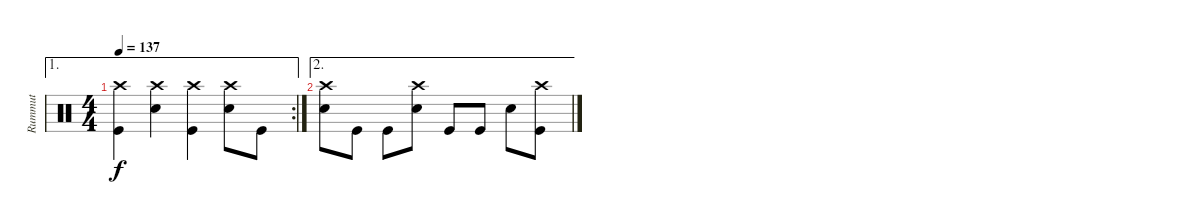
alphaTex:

\track ("Rummut" "Rummut") {instrument percussion}
\staff {score}
\articulation defaults
\ae 1
\rc 2
\ts (4 4)
\tempo 137
\clef neutral
\ks c
("Kick (hit)" "Crash high (hit)").4{dy f} ("Snare (hit) 2" "Crash high (hit)").4 ("Kick (hit)" "Crash high (hit)").4 ("Snare (hit) 2" "Crash high (hit)").8 "Kick (hit)".8 |
\ae 2
("Snare (hit) 2" "Crash high (hit)").8 "Kick (hit)".8 "Kick (hit)".8 ("Snare (hit) 2" "Crash high (hit)").8 "Kick (hit)".8 "Kick (hit)".8 "Snare (hit) 2".8 ("Kick (hit)" "Crash high (hit)").8
